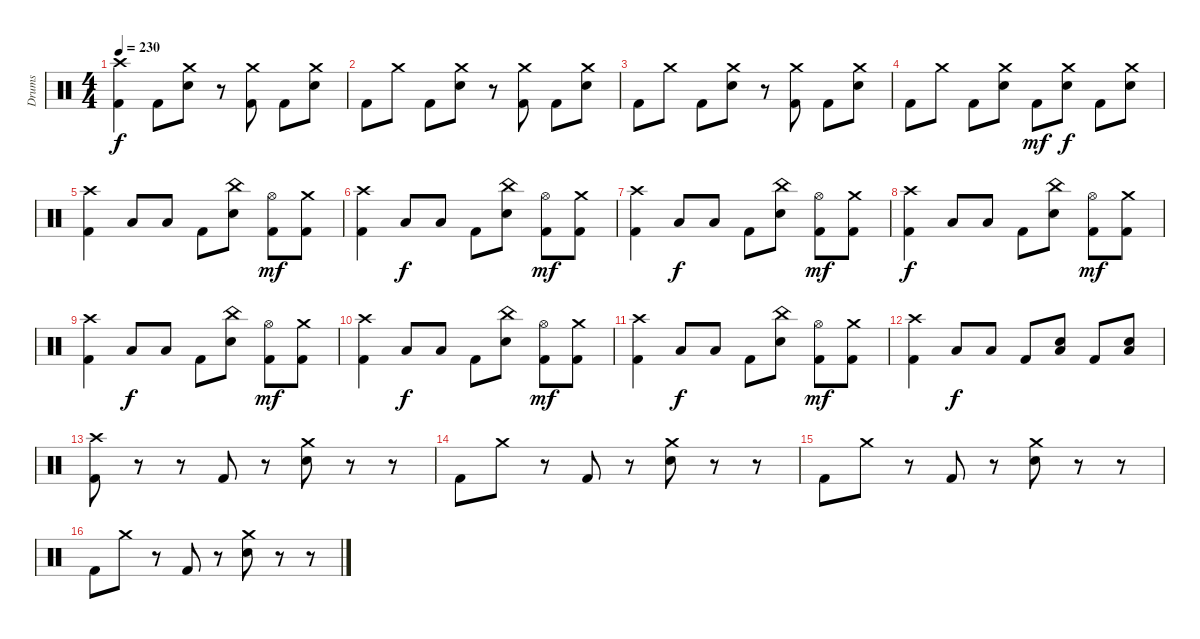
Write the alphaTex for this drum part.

\track ("Drums" "Drums") {instrument percussion}
\staff {score}
\articulation defaults
\ts (4 4)
\tempo 230
\clef neutral
\ks c
("Kick (hit) 2" "Crash high (hit)").4{dy f} "Kick (hit) 2".8 ("Electric Snare (hit)" "Crash medium (hit)").8 r.8 ("Kick (hit) 2" "Crash medium (hit)").8 "Kick (hit) 2".8 ("Electric Snare (hit)" "Crash medium (hit)").8 |
"Kick (hit) 2".8 "Crash medium (hit)".8 "Kick (hit) 2".8 ("Electric Snare (hit)" "Crash medium (hit)").8 r.8 ("Kick (hit) 2" "Crash medium (hit)").8 "Kick (hit) 2".8 ("Electric Snare (hit)" "Crash medium (hit)").8 |
"Kick (hit) 2".8 "Crash medium (hit)".8 "Kick (hit) 2".8 ("Electric Snare (hit)" "Crash medium (hit)").8 r.8 ("Kick (hit) 2" "Crash medium (hit)").8 "Kick (hit) 2".8 ("Electric Snare (hit)" "Crash medium (hit)").8 |
"Kick (hit) 2".8 "Crash medium (hit)".8 "Kick (hit) 2".8 ("Electric Snare (hit)" "Crash medium (hit)").8 "Kick (hit) 2".8{dy mf} ("Electric Snare (hit)" "Crash medium (hit)").8{dy f} "Kick (hit) 2".8 ("Electric Snare (hit)" "Crash medium (hit)").8 |
("Kick (hit) 2" "Crash high (hit)").4 "Low Tom (hit)".8 "Low Tom (hit)".8 "Kick (hit) 2".8 ("Electric Snare (hit)" "China (hit)").8 ("Kick (hit) 2" "Hi-Hat (open)").8{dy mf} ("Kick (hit) 2" "Crash medium (hit)").8 |
("Kick (hit) 2" "Crash high (hit)").4 "Low Tom (hit)".8{dy f} "Low Tom (hit)".8 "Kick (hit) 2".8 ("Electric Snare (hit)" "China (hit)").8 ("Kick (hit) 2" "Hi-Hat (open)").8{dy mf} ("Kick (hit) 2" "Crash medium (hit)").8 |
("Kick (hit) 2" "Crash high (hit)").4 "Low Tom (hit)".8{dy f} "Low Tom (hit)".8 "Kick (hit) 2".8 ("Electric Snare (hit)" "China (hit)").8 ("Kick (hit) 2" "Hi-Hat (open)").8{dy mf} ("Kick (hit) 2" "Crash medium (hit)").8 |
("Kick (hit) 2" "Crash high (hit)").4{dy f} "Low Tom (hit)".8 "Low Tom (hit)".8 "Kick (hit) 2".8 ("Electric Snare (hit)" "China (hit)").8 ("Kick (hit) 2" "Hi-Hat (open)").8{dy mf} ("Kick (hit) 2" "Crash medium (hit)").8 |
("Kick (hit) 2" "Crash high (hit)").4 "Low Tom (hit)".8{dy f} "Low Tom (hit)".8 "Kick (hit) 2".8 ("Electric Snare (hit)" "China (hit)").8 ("Kick (hit) 2" "Hi-Hat (open)").8{dy mf} ("Kick (hit) 2" "Crash medium (hit)").8 |
("Kick (hit) 2" "Crash high (hit)").4 "Low Tom (hit)".8{dy f} "Low Tom (hit)".8 "Kick (hit) 2".8 ("Electric Snare (hit)" "China (hit)").8 ("Kick (hit) 2" "Hi-Hat (open)").8{dy mf} ("Kick (hit) 2" "Crash medium (hit)").8 |
("Kick (hit) 2" "Crash high (hit)").4 "Low Tom (hit)".8{dy f} "Low Tom (hit)".8 "Kick (hit) 2".8 ("Electric Snare (hit)" "China (hit)").8 ("Kick (hit) 2" "Hi-Hat (open)").8{dy mf} ("Kick (hit) 2" "Crash medium (hit)").8 |
("Kick (hit) 2" "Crash high (hit)").4 "Low Tom (hit)".8{dy f} "Low Tom (hit)".8 "Kick (hit) 2".8 ("Electric Snare (hit)" "Low Floor Tom (hit)").8 "Kick (hit) 2".8 ("Electric Snare (hit)" "Low Floor Tom (hit)").8 |
("Kick (hit) 2" "Crash high (hit)").8 r.8 r.8 "Kick (hit) 2".8 r.8 ("Electric Snare (hit)" "Crash medium (hit)").8 r.8 r.8 |
"Kick (hit) 2".8 "Crash medium (hit)".8 r.8 "Kick (hit) 2".8 r.8 ("Electric Snare (hit)" "Crash medium (hit)").8 r.8 r.8 |
"Kick (hit) 2".8 "Crash medium (hit)".8 r.8 "Kick (hit) 2".8 r.8 ("Electric Snare (hit)" "Crash medium (hit)").8 r.8 r.8 |
"Kick (hit) 2".8 "Crash medium (hit)".8 r.8 "Kick (hit) 2".8 r.8 ("Electric Snare (hit)" "Crash medium (hit)").8 r.8 r.8
